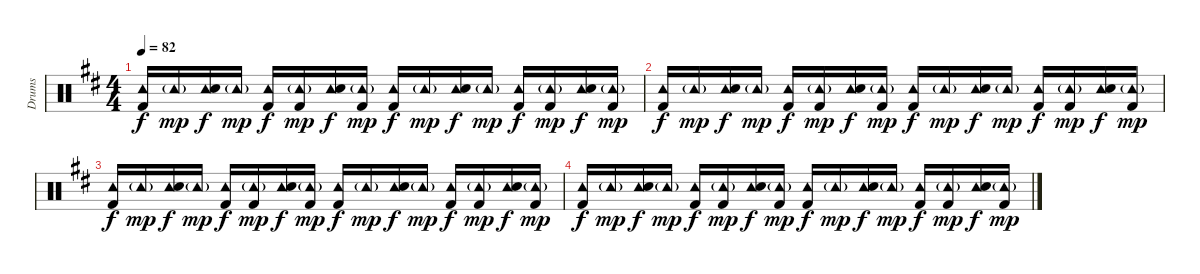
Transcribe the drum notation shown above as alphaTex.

\track ("Drums" "Drums") {instrument percussion}
\staff {score}
\articulation defaults
\ts (4 4)
\tempo 82
\clef neutral
\ks d
("Tambourine (hit)" "Kick (hit) 2").16{dy f} "Tambourine (hit)"{g}.16{dy mp} ("Tambourine (hit)" "Snare (hit) 2").16{dy f} "Tambourine (hit)"{g}.16{dy mp} ("Tambourine (hit)" "Kick (hit) 2").16{dy f} ("Tambourine (hit)"{g} "Kick (hit) 2").16{dy mp} ("Tambourine (hit)" "Snare (hit) 2").16{dy f} ("Tambourine (hit)"{g} "Kick (hit) 2").16{dy mp} ("Tambourine (hit)" "Kick (hit) 2").16{dy f} "Tambourine (hit)"{g}.16{dy mp} ("Tambourine (hit)" "Snare (hit) 2").16{dy f} "Tambourine (hit)"{g}.16{dy mp} ("Tambourine (hit)" "Kick (hit) 2").16{dy f} ("Tambourine (hit)"{g} "Kick (hit) 2").16{dy mp} ("Tambourine (hit)" "Snare (hit) 2").16{dy f} ("Tambourine (hit)"{g} "Kick (hit) 2").16{dy mp} |
("Tambourine (hit)" "Kick (hit) 2").16{dy f} "Tambourine (hit)"{g}.16{dy mp} ("Tambourine (hit)" "Snare (hit) 2").16{dy f} "Tambourine (hit)"{g}.16{dy mp} ("Tambourine (hit)" "Kick (hit) 2").16{dy f} ("Tambourine (hit)"{g} "Kick (hit) 2").16{dy mp} ("Tambourine (hit)" "Snare (hit) 2").16{dy f} ("Tambourine (hit)"{g} "Kick (hit) 2").16{dy mp} ("Tambourine (hit)" "Kick (hit) 2").16{dy f} "Tambourine (hit)"{g}.16{dy mp} ("Tambourine (hit)" "Snare (hit) 2").16{dy f} "Tambourine (hit)"{g}.16{dy mp} ("Tambourine (hit)" "Kick (hit) 2").16{dy f} ("Tambourine (hit)"{g} "Kick (hit) 2").16{dy mp} ("Tambourine (hit)" "Snare (hit) 2").16{dy f} ("Tambourine (hit)"{g} "Kick (hit) 2").16{dy mp} |
("Tambourine (hit)" "Kick (hit) 2").16{dy f} "Tambourine (hit)"{g}.16{dy mp} ("Tambourine (hit)" "Snare (hit) 2").16{dy f} "Tambourine (hit)"{g}.16{dy mp} ("Tambourine (hit)" "Kick (hit) 2").16{dy f} ("Tambourine (hit)"{g} "Kick (hit) 2").16{dy mp} ("Tambourine (hit)" "Snare (hit) 2").16{dy f} ("Tambourine (hit)"{g} "Kick (hit) 2").16{dy mp} ("Tambourine (hit)" "Kick (hit) 2").16{dy f} "Tambourine (hit)"{g}.16{dy mp} ("Tambourine (hit)" "Snare (hit) 2").16{dy f} "Tambourine (hit)"{g}.16{dy mp} ("Tambourine (hit)" "Kick (hit) 2").16{dy f} ("Tambourine (hit)"{g} "Kick (hit) 2").16{dy mp} ("Tambourine (hit)" "Snare (hit) 2").16{dy f} ("Tambourine (hit)"{g} "Kick (hit) 2").16{dy mp} |
("Tambourine (hit)" "Kick (hit) 2").16{dy f} "Tambourine (hit)"{g}.16{dy mp} ("Tambourine (hit)" "Snare (hit) 2").16{dy f} "Tambourine (hit)"{g}.16{dy mp} ("Tambourine (hit)" "Kick (hit) 2").16{dy f} ("Tambourine (hit)"{g} "Kick (hit) 2").16{dy mp} ("Tambourine (hit)" "Snare (hit) 2").16{dy f} ("Tambourine (hit)"{g} "Kick (hit) 2").16{dy mp} ("Tambourine (hit)" "Kick (hit) 2").16{dy f} "Tambourine (hit)"{g}.16{dy mp} ("Tambourine (hit)" "Snare (hit) 2").16{dy f} "Tambourine (hit)"{g}.16{dy mp} ("Tambourine (hit)" "Kick (hit) 2").16{dy f} ("Tambourine (hit)"{g} "Kick (hit) 2").16{dy mp} ("Tambourine (hit)" "Snare (hit) 2").16{dy f} ("Tambourine (hit)"{g} "Kick (hit) 2").16{dy mp}
